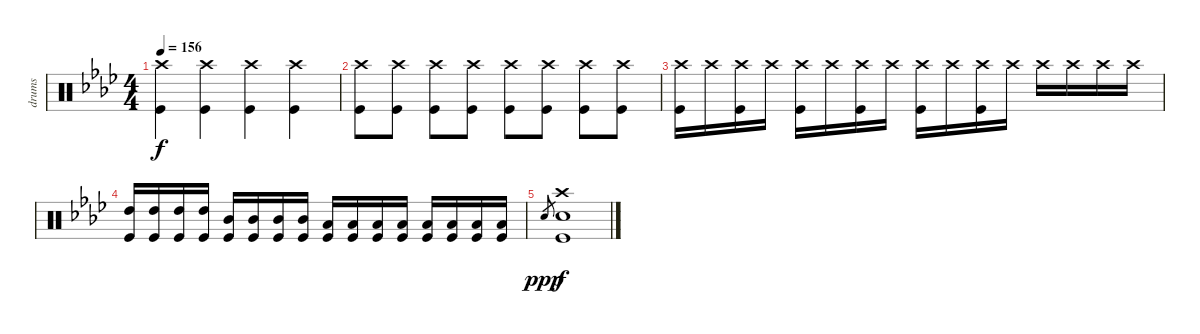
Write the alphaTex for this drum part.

\track ("drums" "drums") {instrument percussion}
\staff {score}
\articulation defaults
\ts (4 4)
\tempo 156
\clef neutral
\ks ab
("Crash high (hit)" "Kick (hit)").4{dy f} ("Crash high (hit)" "Kick (hit)").4 ("Crash high (hit)" "Kick (hit)").4 ("Crash high (hit)" "Kick (hit)").4 |
("Crash high (hit)" "Kick (hit)").8 ("Crash high (hit)" "Kick (hit)").8 ("Crash high (hit)" "Kick (hit)").8 ("Crash high (hit)" "Kick (hit)").8 ("Crash high (hit)" "Kick (hit)").8 ("Crash high (hit)" "Kick (hit)").8 ("Crash high (hit)" "Kick (hit)").8 ("Crash high (hit)" "Kick (hit)").8 |
("Crash high (hit)" "Kick (hit)").16 "Crash high (hit)".16 ("Crash high (hit)" "Kick (hit)").16 "Crash high (hit)".16 ("Crash high (hit)" "Kick (hit)").16 "Crash high (hit)".16 ("Crash high (hit)" "Kick (hit)").16 "Crash high (hit)".16 ("Crash high (hit)" "Kick (hit)").16 "Crash high (hit)".16 ("Crash high (hit)" "Kick (hit)").16 "Crash high (hit)".16 "Crash high (hit)".16 "Crash high (hit)".16 "Crash high (hit)".16 "Crash high (hit)".16 |
("High Tom (hit)" "Kick (hit)").16 ("High Tom (hit)" "Kick (hit)").16 ("High Tom (hit)" "Kick (hit)").16 ("High Tom (hit)" "Kick (hit)").16 ("Mid Tom (hit)" "Kick (hit)").16 ("Mid Tom (hit)" "Kick (hit)").16 ("Mid Tom (hit)" "Kick (hit)").16 ("Mid Tom (hit)" "Kick (hit)").16 ("Low Tom (hit)" "Kick (hit)").16 ("Low Tom (hit)" "Kick (hit)").16 ("Low Tom (hit)" "Kick (hit)").16 ("Low Tom (hit)" "Kick (hit)").16 ("Kick (hit)" "Low Floor Tom (hit)").16 ("Kick (hit)" "Low Floor Tom (hit)").16 ("Kick (hit)" "Low Floor Tom (hit)").16 ("Kick (hit)" "Low Floor Tom (hit)").16 |
"Snare (hit) 2"{sl}.8{gr dy ppp} ("Kick (hit)" "Crash high (hit)" "Snare (hit) 2").1{dy f}
